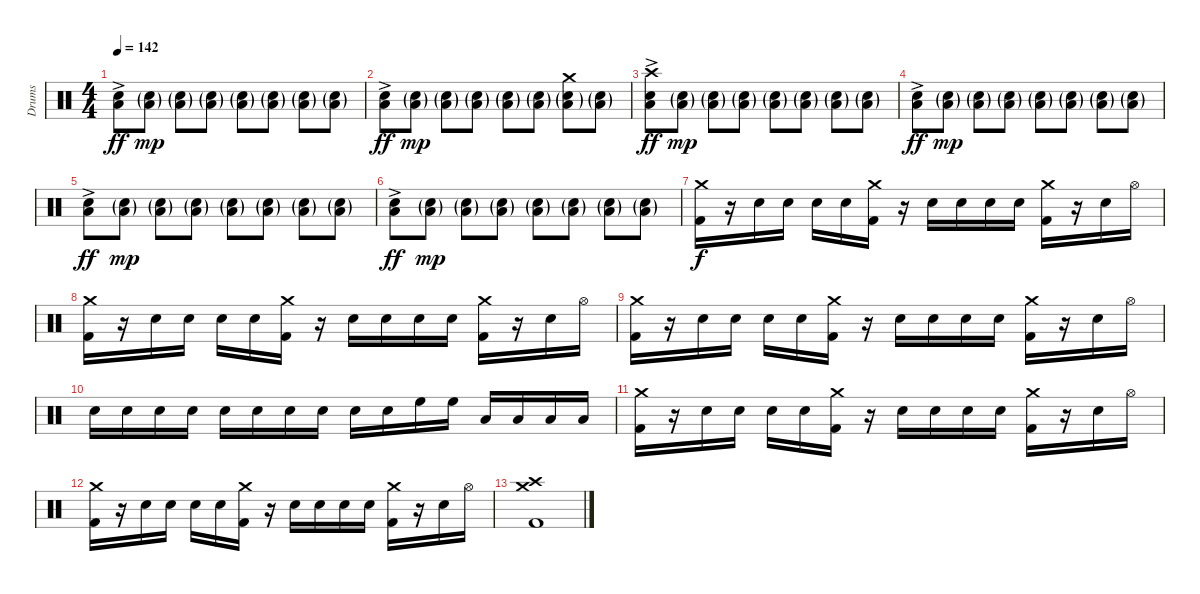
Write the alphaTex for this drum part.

\track ("Drums" "Drums") {instrument percussion}
\staff {score}
\articulation defaults
\ts (4 4)
\tempo 142
\clef neutral
\ks c
("Low Floor Tom (hit)"{ac} "Snare (hit) 2").8{dy ff} ("Low Floor Tom (hit)"{g} "Snare (hit) 2"{g}).8{dy mp} ("Low Floor Tom (hit)"{g} "Snare (hit) 2"{g}).8 ("Low Floor Tom (hit)"{g} "Snare (hit) 2"{g}).8 ("Low Floor Tom (hit)"{g} "Snare (hit) 2"{g}).8 ("Low Floor Tom (hit)"{g} "Snare (hit) 2"{g}).8 ("Low Floor Tom (hit)"{g} "Snare (hit) 2"{g}).8 ("Low Floor Tom (hit)"{g} "Snare (hit) 2"{g}).8 |
("Low Floor Tom (hit)"{ac} "Snare (hit) 2").8{dy ff} ("Low Floor Tom (hit)"{g} "Snare (hit) 2"{g}).8{dy mp} ("Low Floor Tom (hit)"{g} "Snare (hit) 2"{g}).8 ("Low Floor Tom (hit)"{g} "Snare (hit) 2"{g}).8 ("Low Floor Tom (hit)"{g} "Snare (hit) 2"{g}).8 ("Low Floor Tom (hit)"{g} "Snare (hit) 2"{g}).8 ("Crash medium (hit)" "Low Floor Tom (hit)"{g} "Snare (hit) 2"{g}).8 ("Low Floor Tom (hit)"{g} "Snare (hit) 2"{g}).8 |
("Crash high (hit)" "Low Floor Tom (hit)"{ac} "Snare (hit) 2").8{dy ff} ("Low Floor Tom (hit)"{g} "Snare (hit) 2"{g}).8{dy mp} ("Low Floor Tom (hit)"{g} "Snare (hit) 2"{g}).8 ("Low Floor Tom (hit)"{g} "Snare (hit) 2"{g}).8 ("Low Floor Tom (hit)"{g} "Snare (hit) 2"{g}).8 ("Low Floor Tom (hit)"{g} "Snare (hit) 2"{g}).8 ("Low Floor Tom (hit)"{g} "Snare (hit) 2"{g}).8 ("Low Floor Tom (hit)"{g} "Snare (hit) 2"{g}).8 |
("Low Floor Tom (hit)"{ac} "Snare (hit) 2").8{dy ff} ("Low Floor Tom (hit)"{g} "Snare (hit) 2"{g}).8{dy mp} ("Low Floor Tom (hit)"{g} "Snare (hit) 2"{g}).8 ("Low Floor Tom (hit)"{g} "Snare (hit) 2"{g}).8 ("Low Floor Tom (hit)"{g} "Snare (hit) 2"{g}).8 ("Low Floor Tom (hit)"{g} "Snare (hit) 2"{g}).8 ("Low Floor Tom (hit)"{g} "Snare (hit) 2"{g}).8 ("Low Floor Tom (hit)"{g} "Snare (hit) 2"{g}).8 |
("Low Floor Tom (hit)"{ac} "Snare (hit) 2").8{dy ff} ("Low Floor Tom (hit)"{g} "Snare (hit) 2"{g}).8{dy mp} ("Low Floor Tom (hit)"{g} "Snare (hit) 2"{g}).8 ("Low Floor Tom (hit)"{g} "Snare (hit) 2"{g}).8 ("Low Floor Tom (hit)"{g} "Snare (hit) 2"{g}).8 ("Low Floor Tom (hit)"{g} "Snare (hit) 2"{g}).8 ("Low Floor Tom (hit)"{g} "Snare (hit) 2"{g}).8 ("Low Floor Tom (hit)"{g} "Snare (hit) 2"{g}).8 |
("Low Floor Tom (hit)"{ac} "Snare (hit) 2").8{dy ff} ("Low Floor Tom (hit)"{g} "Snare (hit) 2"{g}).8{dy mp} ("Low Floor Tom (hit)"{g} "Snare (hit) 2"{g}).8 ("Low Floor Tom (hit)"{g} "Snare (hit) 2"{g}).8 ("Low Floor Tom (hit)"{g} "Snare (hit) 2"{g}).8 ("Low Floor Tom (hit)"{g} "Snare (hit) 2"{g}).8 ("Low Floor Tom (hit)"{g} "Snare (hit) 2"{g}).8 ("Low Floor Tom (hit)"{g} "Snare (hit) 2"{g}).8 |
("Crash medium (hit)" "Kick (hit) 2").16{dy f} r.16 "Snare (hit) 2".16 "Snare (hit) 2".16 "Snare (hit) 2".16 "Snare (hit) 2".16 ("Crash medium (hit)" "Kick (hit) 2").16 r.16 "Snare (hit) 2".16 "Snare (hit) 2".16 "Snare (hit) 2".16 "Snare (hit) 2".16 ("Crash medium (hit)" "Kick (hit) 2").16 r.16 "Snare (hit) 2".16 "Hi-Hat (open)".16 |
("Crash medium (hit)" "Kick (hit) 2").16 r.16 "Snare (hit) 2".16 "Snare (hit) 2".16 "Snare (hit) 2".16 "Snare (hit) 2".16 ("Crash medium (hit)" "Kick (hit) 2").16 r.16 "Snare (hit) 2".16 "Snare (hit) 2".16 "Snare (hit) 2".16 "Snare (hit) 2".16 ("Crash medium (hit)" "Kick (hit) 2").16 r.16 "Snare (hit) 2".16 "Hi-Hat (open)".16 |
("Crash medium (hit)" "Kick (hit) 2").16 r.16 "Snare (hit) 2".16 "Snare (hit) 2".16 "Snare (hit) 2".16 "Snare (hit) 2".16 ("Crash medium (hit)" "Kick (hit) 2").16 r.16 "Snare (hit) 2".16 "Snare (hit) 2".16 "Snare (hit) 2".16 "Snare (hit) 2".16 ("Crash medium (hit)" "Kick (hit) 2").16 r.16 "Snare (hit) 2".16 "Hi-Hat (open)".16 |
"Snare (hit) 2".16 "Snare (hit) 2".16 "Snare (hit) 2".16 "Snare (hit) 2".16 "Snare (hit) 2".16 "Snare (hit) 2".16 "Snare (hit) 2".16 "Snare (hit) 2".16 "Snare (hit) 2".16 "Snare (hit) 2".16 "High Floor Tom (hit)".16 "High Floor Tom (hit)".16 "Low Tom (hit)".16 "Low Tom (hit)".16 "Low Floor Tom (hit)".16 "Low Floor Tom (hit)".16 |
("Crash medium (hit)" "Kick (hit) 2").16 r.16 "Snare (hit) 2".16 "Snare (hit) 2".16 "Snare (hit) 2".16 "Snare (hit) 2".16 ("Crash medium (hit)" "Kick (hit) 2").16 r.16 "Snare (hit) 2".16 "Snare (hit) 2".16 "Snare (hit) 2".16 "Snare (hit) 2".16 ("Crash medium (hit)" "Kick (hit) 2").16 r.16 "Snare (hit) 2".16 "Hi-Hat (open)".16 |
("Crash medium (hit)" "Kick (hit) 2").16 r.16 "Snare (hit) 2".16 "Snare (hit) 2".16 "Snare (hit) 2".16 "Snare (hit) 2".16 ("Crash medium (hit)" "Kick (hit) 2").16 r.16 "Snare (hit) 2".16 "Snare (hit) 2".16 "Snare (hit) 2".16 "Snare (hit) 2".16 ("Crash medium (hit)" "Kick (hit) 2").16 r.16 "Snare (hit) 2".16 "Hi-Hat (open)".16 |
("Crash medium (hit)" "Crash high (hit)" "Kick (hit) 2").1
